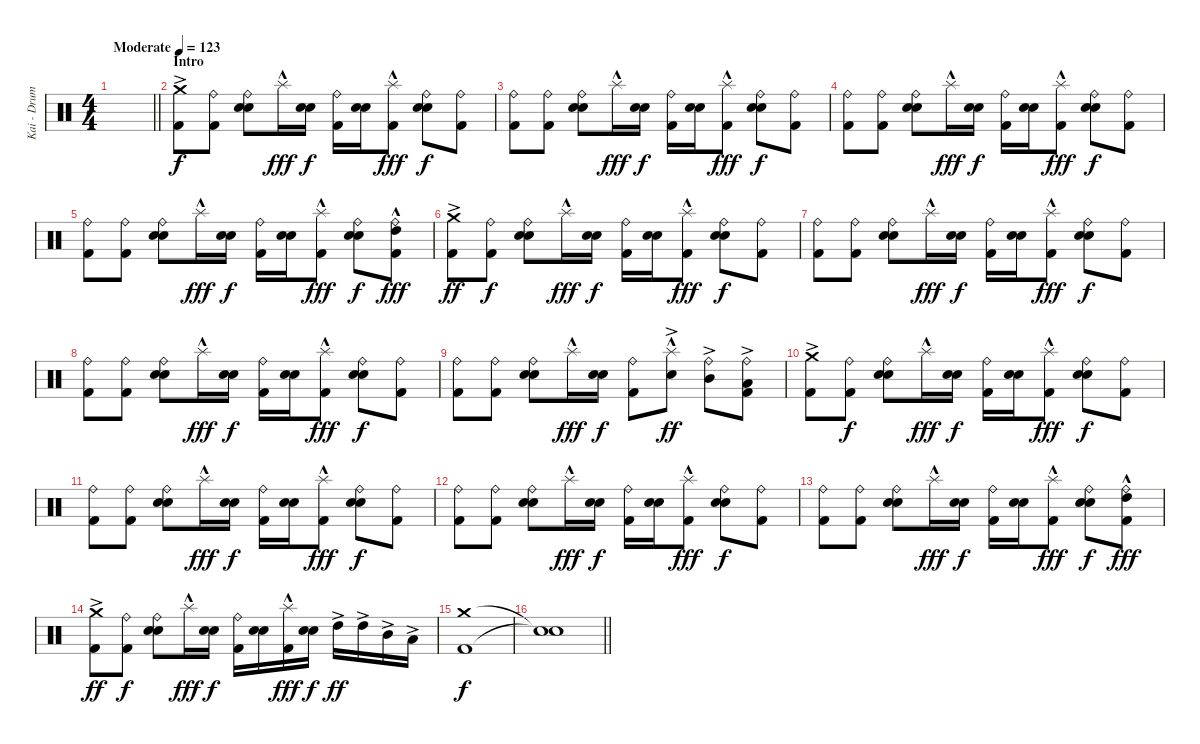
\track ("Kai - Drums" "Kai - Drum") {instrument percussion}
\staff {score}
\articulation defaults
\ts (4 4)
\tempo (123 "Moderate")
\clef neutral
\barLineRight lightlight
\ks c
|
\section ("" "Intro")
("Crash medium (hit)"{ac} "Kick (hit) 2").8 ("Ride (bell)" "Kick (hit) 2").8{dy f} ("Ride (bell)" "Electric Snare (hit)" "Snare (hit) 2").8 "Splash (hit)"{hac}.16{dy fff} ("Electric Snare (hit)" "Snare (hit) 2").16{dy f} ("Ride (bell)" "Kick (hit) 2").16 ("Electric Snare (hit)" "Snare (hit) 2").16 ("Splash (hit)"{hac} "Kick (hit) 2").8{dy fff} ("Ride (bell)" "Electric Snare (hit)" "Snare (hit) 2").8{dy f} ("Ride (bell)" "Kick (hit) 2").8 |
("Ride (bell)" "Kick (hit) 2").8 ("Ride (bell)" "Kick (hit) 2").8 ("Ride (bell)" "Electric Snare (hit)" "Snare (hit) 2").8 "Splash (hit)"{hac}.16{dy fff} ("Electric Snare (hit)" "Snare (hit) 2").16{dy f} ("Ride (bell)" "Kick (hit) 2").16 ("Electric Snare (hit)" "Snare (hit) 2").16 ("Splash (hit)"{hac} "Kick (hit) 2").8{dy fff} ("Ride (bell)" "Electric Snare (hit)" "Snare (hit) 2").8{dy f} ("Ride (bell)" "Kick (hit) 2").8 |
("Ride (bell)" "Kick (hit) 2").8 ("Ride (bell)" "Kick (hit) 2").8 ("Ride (bell)" "Electric Snare (hit)" "Snare (hit) 2").8 "Splash (hit)"{hac}.16{dy fff} ("Electric Snare (hit)" "Snare (hit) 2").16{dy f} ("Ride (bell)" "Kick (hit) 2").16 ("Electric Snare (hit)" "Snare (hit) 2").16 ("Splash (hit)"{hac} "Kick (hit) 2").8{dy fff} ("Ride (bell)" "Electric Snare (hit)" "Snare (hit) 2").8{dy f} ("Ride (bell)" "Kick (hit) 2").8 |
("Ride (bell)" "Kick (hit) 2").8 ("Ride (bell)" "Kick (hit) 2").8 ("Ride (bell)" "Electric Snare (hit)" "Snare (hit) 2").8 "Splash (hit)"{hac}.16{dy fff} ("Electric Snare (hit)" "Snare (hit) 2").16{dy f} ("Ride (bell)" "Kick (hit) 2").16 ("Electric Snare (hit)" "Snare (hit) 2").16 ("Splash (hit)"{hac} "Kick (hit) 2").8{dy fff} ("Ride (bell)" "Electric Snare (hit)" "Snare (hit) 2").8{dy f} ("Ride (bell)" "High Tom (hit)"{hac} "Kick (hit) 2").8{dy fff} |
("Crash medium (hit)"{ac} "Kick (hit) 2").8{dy ff} ("Ride (bell)" "Kick (hit) 2").8{dy f} ("Ride (bell)" "Electric Snare (hit)" "Snare (hit) 2").8 "Splash (hit)"{hac}.16{dy fff} ("Electric Snare (hit)" "Snare (hit) 2").16{dy f} ("Ride (bell)" "Kick (hit) 2").16 ("Electric Snare (hit)" "Snare (hit) 2").16 ("Splash (hit)"{hac} "Kick (hit) 2").8{dy fff} ("Ride (bell)" "Electric Snare (hit)" "Snare (hit) 2").8{dy f} ("Ride (bell)" "Kick (hit) 2").8 |
("Ride (bell)" "Kick (hit) 2").8 ("Ride (bell)" "Kick (hit) 2").8 ("Ride (bell)" "Electric Snare (hit)" "Snare (hit) 2").8 "Splash (hit)"{hac}.16{dy fff} ("Electric Snare (hit)" "Snare (hit) 2").16{dy f} ("Ride (bell)" "Kick (hit) 2").16 ("Electric Snare (hit)" "Snare (hit) 2").16 ("Splash (hit)"{hac} "Kick (hit) 2").8{dy fff} ("Ride (bell)" "Electric Snare (hit)" "Snare (hit) 2").8{dy f} ("Ride (bell)" "Kick (hit) 2").8 |
("Ride (bell)" "Kick (hit) 2").8 ("Ride (bell)" "Kick (hit) 2").8 ("Ride (bell)" "Electric Snare (hit)" "Snare (hit) 2").8 "Splash (hit)"{hac}.16{dy fff} ("Electric Snare (hit)" "Snare (hit) 2").16{dy f} ("Ride (bell)" "Kick (hit) 2").16 ("Electric Snare (hit)" "Snare (hit) 2").16 ("Splash (hit)"{hac} "Kick (hit) 2").8{dy fff} ("Ride (bell)" "Electric Snare (hit)" "Snare (hit) 2").8{dy f} ("Ride (bell)" "Kick (hit) 2").8 |
("Ride (bell)" "Kick (hit) 2").8 ("Ride (bell)" "Kick (hit) 2").8 ("Ride (bell)" "Electric Snare (hit)" "Snare (hit) 2").8 "Splash (hit)"{hac}.16{dy fff} ("Electric Snare (hit)" "Snare (hit) 2").16{dy f} ("Ride (bell)" "Kick (hit) 2").8 ("Splash (hit)"{hac} "Electric Snare (hit)"{ac}).8{dy ff} ("Ride (bell)" "Mid Tom (hit)"{ac}).8 ("Ride (bell)" "Low Tom (hit)"{ac} "Kick (hit) 2").8 |
("Crash medium (hit)"{ac} "Kick (hit) 2").8 ("Ride (bell)" "Kick (hit) 2").8{dy f} ("Ride (bell)" "Electric Snare (hit)" "Snare (hit) 2").8 "Splash (hit)"{hac}.16{dy fff} ("Electric Snare (hit)" "Snare (hit) 2").16{dy f} ("Ride (bell)" "Kick (hit) 2").16 ("Electric Snare (hit)" "Snare (hit) 2").16 ("Splash (hit)"{hac} "Kick (hit) 2").8{dy fff} ("Ride (bell)" "Electric Snare (hit)" "Snare (hit) 2").8{dy f} ("Ride (bell)" "Kick (hit) 2").8 |
("Ride (bell)" "Kick (hit) 2").8 ("Ride (bell)" "Kick (hit) 2").8 ("Ride (bell)" "Electric Snare (hit)" "Snare (hit) 2").8 "Splash (hit)"{hac}.16{dy fff} ("Electric Snare (hit)" "Snare (hit) 2").16{dy f} ("Ride (bell)" "Kick (hit) 2").16 ("Electric Snare (hit)" "Snare (hit) 2").16 ("Splash (hit)"{hac} "Kick (hit) 2").8{dy fff} ("Ride (bell)" "Electric Snare (hit)" "Snare (hit) 2").8{dy f} ("Ride (bell)" "Kick (hit) 2").8 |
("Ride (bell)" "Kick (hit) 2").8 ("Ride (bell)" "Kick (hit) 2").8 ("Ride (bell)" "Electric Snare (hit)" "Snare (hit) 2").8 "Splash (hit)"{hac}.16{dy fff} ("Electric Snare (hit)" "Snare (hit) 2").16{dy f} ("Ride (bell)" "Kick (hit) 2").16 ("Electric Snare (hit)" "Snare (hit) 2").16 ("Splash (hit)"{hac} "Kick (hit) 2").8{dy fff} ("Ride (bell)" "Electric Snare (hit)" "Snare (hit) 2").8{dy f} ("Ride (bell)" "Kick (hit) 2").8 |
("Ride (bell)" "Kick (hit) 2").8 ("Ride (bell)" "Kick (hit) 2").8 ("Ride (bell)" "Electric Snare (hit)" "Snare (hit) 2").8 "Splash (hit)"{hac}.16{dy fff} ("Electric Snare (hit)" "Snare (hit) 2").16{dy f} ("Ride (bell)" "Kick (hit) 2").16 ("Electric Snare (hit)" "Snare (hit) 2").16 ("Splash (hit)"{hac} "Kick (hit) 2").8{dy fff} ("Ride (bell)" "Electric Snare (hit)" "Snare (hit) 2").8{dy f} ("Ride (bell)" "High Tom (hit)"{hac} "Kick (hit) 2").8{dy fff} |
("Crash medium (hit)"{ac} "Kick (hit) 2").8{dy ff} ("Ride (bell)" "Kick (hit) 2").8{dy f} ("Ride (bell)" "Electric Snare (hit)" "Snare (hit) 2").8 "Splash (hit)"{hac}.16{dy fff} ("Electric Snare (hit)" "Snare (hit) 2").16{dy f} ("Ride (bell)" "Kick (hit) 2").16 ("Electric Snare (hit)" "Snare (hit) 2").16 ("Splash (hit)"{hac} "Kick (hit) 2").16{dy fff} ("Electric Snare (hit)" "Snare (hit) 2").16{dy f} "High Tom (hit)"{ac}.16{dy ff} "High Tom (hit)"{ac}.16 "Mid Tom (hit)"{ac}.16 "Low Tom (hit)"{ac}.16 |
("Crash medium (hit)" "Kick (hit) 2").1{dy f} |
\barLineRight lightlight
("Snare (hit)"{t} "Snare (hit)"{t}).1
